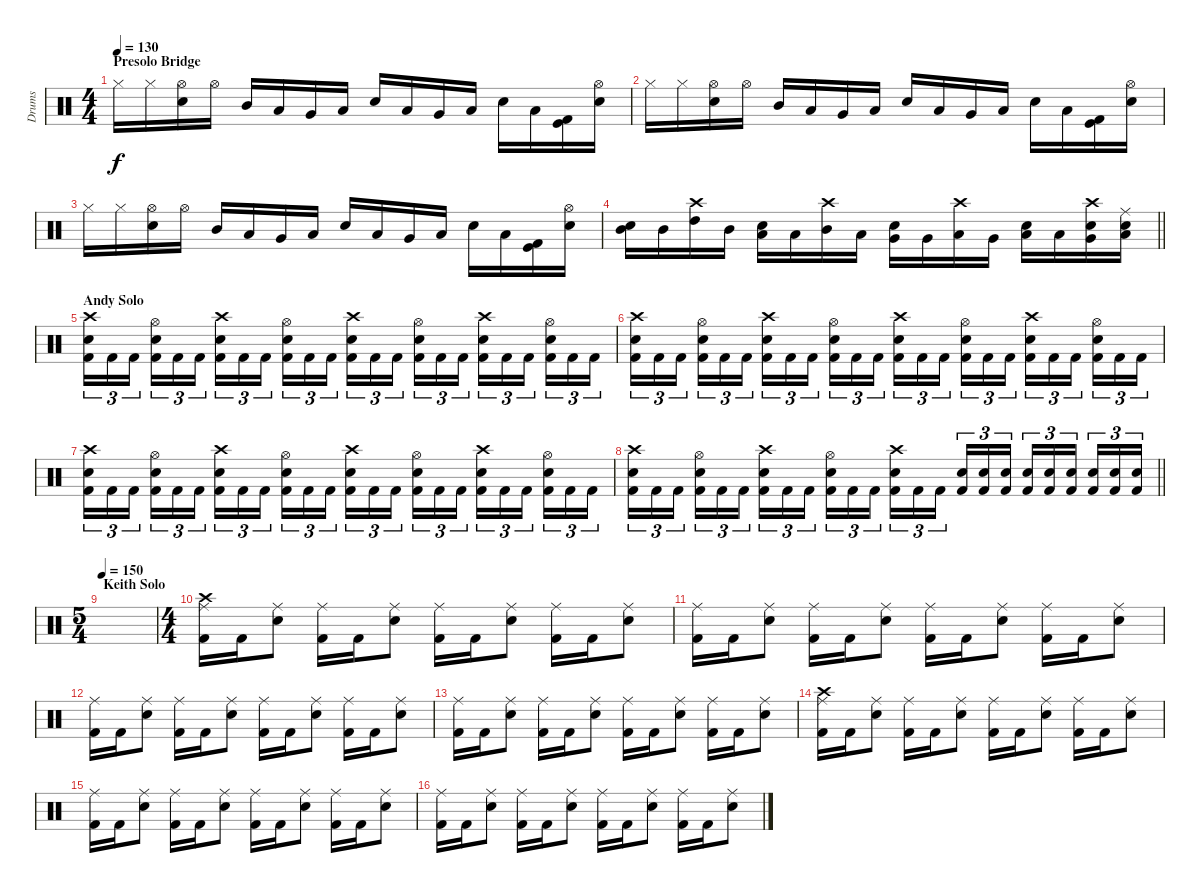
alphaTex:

\track ("Drums" "Drums") {instrument percussion}
\staff {score}
\articulation defaults
\ts (4 4)
\section ("" "Presolo Bridge")
\tempo 130
\clef neutral
\ks c "Hi-Hat (closed)".16{dy f} "Hi-Hat (closed)".16
("Hi-Hat (open)" "Snare (hit) 2").16 "Hi-Hat (open)".16 "Mid Tom (hit)".16 "Low Tom (hit)".16 "Very Low Tom (hit)".16 "Low Floor Tom (hit)".16 "Snare (hit) 2".16 "Low Tom (hit)".16 "Very Low Tom (hit)".16 "Low Floor Tom (hit)".16 "Electric Snare (hit)".16 "Low Floor Tom (hit)".16 ("Kick (hit)" "Kick (hit) 2").16 ("Snare (hit) 2" "Hi-Hat (open)").16 |
"Hi-Hat (closed)".16 "Hi-Hat (closed)".16 ("Hi-Hat (open)" "Snare (hit) 2").16 "Hi-Hat (open)".16 "Mid Tom (hit)".16 "Low Tom (hit)".16 "Very Low Tom (hit)".16 "Low Floor Tom (hit)".16 "Snare (hit) 2".16 "Low Tom (hit)".16 "Very Low Tom (hit)".16 "Low Floor Tom (hit)".16 "Electric Snare (hit)".16 "Low Floor Tom (hit)".16 ("Kick (hit)" "Kick (hit) 2").16 ("Snare (hit) 2" "Hi-Hat (open)").16 |
"Hi-Hat (closed)".16 "Hi-Hat (closed)".16 ("Hi-Hat (open)" "Snare (hit) 2").16 "Hi-Hat (open)".16 "Mid Tom (hit)".16 "Low Tom (hit)".16 "Very Low Tom (hit)".16 "Low Floor Tom (hit)".16 "Snare (hit) 2".16 "Low Tom (hit)".16 "Very Low Tom (hit)".16 "Low Floor Tom (hit)".16 "Electric Snare (hit)".16 "Low Floor Tom (hit)".16 ("Kick (hit)" "Kick (hit) 2").16 ("Snare (hit) 2" "Hi-Hat (open)").16 |
\barLineRight lightlight
("Snare (hit) 2" "Mid Tom (hit)").16 "Mid Tom (hit)".16 ("Crash high (hit)" "High Tom (hit)").16 "Mid Tom (hit)".16 ("Snare (hit) 2" "Low Tom (hit)").16 "Low Tom (hit)".16 ("Crash high (hit)" "Mid Tom (hit)").16 "Low Tom (hit)".16 ("Snare (hit) 2" "Very Low Tom (hit)").16 "Very Low Tom (hit)".16 ("Crash high (hit)" "Low Tom (hit)").16 "Very Low Tom (hit)".16 ("Snare (hit) 2" "Low Floor Tom (hit)").16 "Low Floor Tom (hit)".16 ("Crash high (hit)" "Snare (hit) 2" "Very Low Tom (hit)").16 ("Ride (middle)" "Snare (hit) 2" "Low Floor Tom (hit)").16 |
\section ("" "Andy Solo")
("Kick (hit) 2" "Snare (hit) 2" "Crash high (hit)").16{tu (3 2)} "Kick (hit) 2".16{tu (3 2)} "Kick (hit) 2".16{tu (3 2) beam splitsecondary} ("Kick (hit) 2" "Snare (hit) 2" "Hi-Hat (open)").16{tu (3 2)} "Kick (hit) 2".16{tu (3 2)} "Kick (hit) 2".16{tu (3 2)} ("Kick (hit) 2" "Snare (hit) 2" "Crash high (hit)").16{tu (3 2)} "Kick (hit) 2".16{tu (3 2)} "Kick (hit) 2".16{tu (3 2) beam splitsecondary} ("Kick (hit) 2" "Snare (hit) 2" "Hi-Hat (open)").16{tu (3 2)} "Kick (hit) 2".16{tu (3 2)} "Kick (hit) 2".16{tu (3 2)} ("Kick (hit) 2" "Snare (hit) 2" "Crash high (hit)").16{tu (3 2)} "Kick (hit) 2".16{tu (3 2)} "Kick (hit) 2".16{tu (3 2) beam splitsecondary} ("Kick (hit) 2" "Snare (hit) 2" "Hi-Hat (open)").16{tu (3 2)} "Kick (hit) 2".16{tu (3 2)} "Kick (hit) 2".16{tu (3 2)} ("Kick (hit) 2" "Snare (hit) 2" "Crash high (hit)").16{tu (3 2)} "Kick (hit) 2".16{tu (3 2)} "Kick (hit) 2".16{tu (3 2) beam splitsecondary} ("Kick (hit) 2" "Snare (hit) 2" "Hi-Hat (open)").16{tu (3 2)} "Kick (hit) 2".16{tu (3 2)} "Kick (hit) 2".16{tu (3 2)} |
("Kick (hit) 2" "Snare (hit) 2" "Crash high (hit)").16{tu (3 2)} "Kick (hit) 2".16{tu (3 2)} "Kick (hit) 2".16{tu (3 2) beam splitsecondary} ("Kick (hit) 2" "Snare (hit) 2" "Hi-Hat (open)").16{tu (3 2)} "Kick (hit) 2".16{tu (3 2)} "Kick (hit) 2".16{tu (3 2)} ("Kick (hit) 2" "Snare (hit) 2" "Crash high (hit)").16{tu (3 2)} "Kick (hit) 2".16{tu (3 2)} "Kick (hit) 2".16{tu (3 2) beam splitsecondary} ("Kick (hit) 2" "Snare (hit) 2" "Hi-Hat (open)").16{tu (3 2)} "Kick (hit) 2".16{tu (3 2)} "Kick (hit) 2".16{tu (3 2)} ("Kick (hit) 2" "Snare (hit) 2" "Crash high (hit)").16{tu (3 2)} "Kick (hit) 2".16{tu (3 2)} "Kick (hit) 2".16{tu (3 2) beam splitsecondary} ("Kick (hit) 2" "Snare (hit) 2" "Hi-Hat (open)").16{tu (3 2)} "Kick (hit) 2".16{tu (3 2)} "Kick (hit) 2".16{tu (3 2)} ("Kick (hit) 2" "Snare (hit) 2" "Crash high (hit)").16{tu (3 2)} "Kick (hit) 2".16{tu (3 2)} "Kick (hit) 2".16{tu (3 2) beam splitsecondary} ("Kick (hit) 2" "Snare (hit) 2" "Hi-Hat (open)").16{tu (3 2)} "Kick (hit) 2".16{tu (3 2)} "Kick (hit) 2".16{tu (3 2)} |
("Kick (hit) 2" "Snare (hit) 2" "Crash high (hit)").16{tu (3 2)} "Kick (hit) 2".16{tu (3 2)} "Kick (hit) 2".16{tu (3 2) beam splitsecondary} ("Kick (hit) 2" "Snare (hit) 2" "Hi-Hat (open)").16{tu (3 2)} "Kick (hit) 2".16{tu (3 2)} "Kick (hit) 2".16{tu (3 2)} ("Kick (hit) 2" "Snare (hit) 2" "Crash high (hit)").16{tu (3 2)} "Kick (hit) 2".16{tu (3 2)} "Kick (hit) 2".16{tu (3 2) beam splitsecondary} ("Kick (hit) 2" "Snare (hit) 2" "Hi-Hat (open)").16{tu (3 2)} "Kick (hit) 2".16{tu (3 2)} "Kick (hit) 2".16{tu (3 2)} ("Kick (hit) 2" "Snare (hit) 2" "Crash high (hit)").16{tu (3 2)} "Kick (hit) 2".16{tu (3 2)} "Kick (hit) 2".16{tu (3 2) beam splitsecondary} ("Kick (hit) 2" "Snare (hit) 2" "Hi-Hat (open)").16{tu (3 2)} "Kick (hit) 2".16{tu (3 2)} "Kick (hit) 2".16{tu (3 2)} ("Kick (hit) 2" "Snare (hit) 2" "Crash high (hit)").16{tu (3 2)} "Kick (hit) 2".16{tu (3 2)} "Kick (hit) 2".16{tu (3 2) beam splitsecondary} ("Kick (hit) 2" "Snare (hit) 2" "Hi-Hat (open)").16{tu (3 2)} "Kick (hit) 2".16{tu (3 2)} "Kick (hit) 2".16{tu (3 2)} |
\barLineRight lightlight
("Kick (hit) 2" "Snare (hit) 2" "Crash high (hit)").16{tu (3 2)} "Kick (hit) 2".16{tu (3 2)} "Kick (hit) 2".16{tu (3 2) beam splitsecondary} ("Kick (hit) 2" "Snare (hit) 2" "Hi-Hat (open)").16{tu (3 2)} "Kick (hit) 2".16{tu (3 2)} "Kick (hit) 2".16{tu (3 2)} ("Kick (hit) 2" "Snare (hit) 2" "Crash high (hit)").16{tu (3 2)} "Kick (hit) 2".16{tu (3 2)} "Kick (hit) 2".16{tu (3 2) beam splitsecondary} ("Kick (hit) 2" "Snare (hit) 2" "Hi-Hat (open)").16{tu (3 2)} "Kick (hit) 2".16{tu (3 2)} "Kick (hit) 2".16{tu (3 2)} ("Kick (hit) 2" "Snare (hit) 2" "Crash high (hit)").16{tu (3 2)} "Kick (hit) 2".16{tu (3 2)} "Kick (hit) 2".16{tu (3 2) beam splitsecondary} ("Kick (hit) 2" "Snare (hit) 2").16{tu (3 2)} ("Kick (hit) 2" "Snare (hit) 2").16{tu (3 2)} ("Kick (hit) 2" "Snare (hit) 2").16{tu (3 2)} ("Kick (hit) 2" "Snare (hit) 2").16{tu (3 2)} ("Kick (hit) 2" "Snare (hit) 2").16{tu (3 2)} ("Kick (hit) 2" "Snare (hit) 2").16{tu (3 2) beam splitsecondary} ("Kick (hit) 2" "Snare (hit) 2").16{tu (3 2)} ("Kick (hit) 2" "Snare (hit) 2").16{tu (3 2)} ("Kick (hit) 2" "Snare (hit) 2").16{tu (3 2)} |
\ts (5 4)
\section ("" "Keith Solo")
\tempo 150
|
\ts (4 4)
("Ride (middle)" "Crash high (hit)" "Kick (hit) 2").16 "Kick (hit) 2".16 ("Ride (middle)" "Snare (hit) 2").8 ("Ride (middle)" "Kick (hit) 2").16 "Kick (hit) 2".16 ("Ride (middle)" "Snare (hit) 2").8 ("Ride (middle)" "Kick (hit) 2").16 "Kick (hit) 2".16 ("Ride (middle)" "Snare (hit) 2").8 ("Ride (middle)" "Kick (hit) 2").16 "Kick (hit) 2".16 ("Ride (middle)" "Snare (hit) 2").8 |
("Ride (middle)" "Kick (hit) 2").16 "Kick (hit) 2".16 ("Ride (middle)" "Snare (hit) 2").8 ("Ride (middle)" "Kick (hit) 2").16 "Kick (hit) 2".16 ("Ride (middle)" "Snare (hit) 2").8 ("Ride (middle)" "Kick (hit) 2").16 "Kick (hit) 2".16 ("Ride (middle)" "Snare (hit) 2").8 ("Ride (middle)" "Kick (hit) 2").16 "Kick (hit) 2".16 ("Ride (middle)" "Snare (hit) 2").8 |
("Ride (middle)" "Kick (hit) 2").16 "Kick (hit) 2".16 ("Ride (middle)" "Snare (hit) 2").8 ("Ride (middle)" "Kick (hit) 2").16 "Kick (hit) 2".16 ("Ride (middle)" "Snare (hit) 2").8 ("Ride (middle)" "Kick (hit) 2").16 "Kick (hit) 2".16 ("Ride (middle)" "Snare (hit) 2").8 ("Ride (middle)" "Kick (hit) 2").16 "Kick (hit) 2".16 ("Ride (middle)" "Snare (hit) 2").8 |
("Ride (middle)" "Kick (hit) 2").16 "Kick (hit) 2".16 ("Ride (middle)" "Snare (hit) 2").8 ("Ride (middle)" "Kick (hit) 2").16 "Kick (hit) 2".16 ("Ride (middle)" "Snare (hit) 2").8 ("Ride (middle)" "Kick (hit) 2").16 "Kick (hit) 2".16 ("Ride (middle)" "Snare (hit) 2").8 ("Ride (middle)" "Kick (hit) 2").16 "Kick (hit) 2".16 ("Ride (middle)" "Snare (hit) 2").8 |
("Ride (middle)" "Crash high (hit)" "Kick (hit) 2").16 "Kick (hit) 2".16 ("Ride (middle)" "Snare (hit) 2").8 ("Ride (middle)" "Kick (hit) 2").16 "Kick (hit) 2".16 ("Ride (middle)" "Snare (hit) 2").8 ("Ride (middle)" "Kick (hit) 2").16 "Kick (hit) 2".16 ("Ride (middle)" "Snare (hit) 2").8 ("Ride (middle)" "Kick (hit) 2").16 "Kick (hit) 2".16 ("Ride (middle)" "Snare (hit) 2").8 |
("Ride (middle)" "Kick (hit) 2").16 "Kick (hit) 2".16 ("Ride (middle)" "Snare (hit) 2").8 ("Ride (middle)" "Kick (hit) 2").16 "Kick (hit) 2".16 ("Ride (middle)" "Snare (hit) 2").8 ("Ride (middle)" "Kick (hit) 2").16 "Kick (hit) 2".16 ("Ride (middle)" "Snare (hit) 2").8 ("Ride (middle)" "Kick (hit) 2").16 "Kick (hit) 2".16 ("Ride (middle)" "Snare (hit) 2").8 |
("Ride (middle)" "Kick (hit) 2").16 "Kick (hit) 2".16 ("Ride (middle)" "Snare (hit) 2").8 ("Ride (middle)" "Kick (hit) 2").16 "Kick (hit) 2".16 ("Ride (middle)" "Snare (hit) 2").8 ("Ride (middle)" "Kick (hit) 2").16 "Kick (hit) 2".16 ("Ride (middle)" "Snare (hit) 2").8 ("Ride (middle)" "Kick (hit) 2").16 "Kick (hit) 2".16 ("Ride (middle)" "Snare (hit) 2").8
